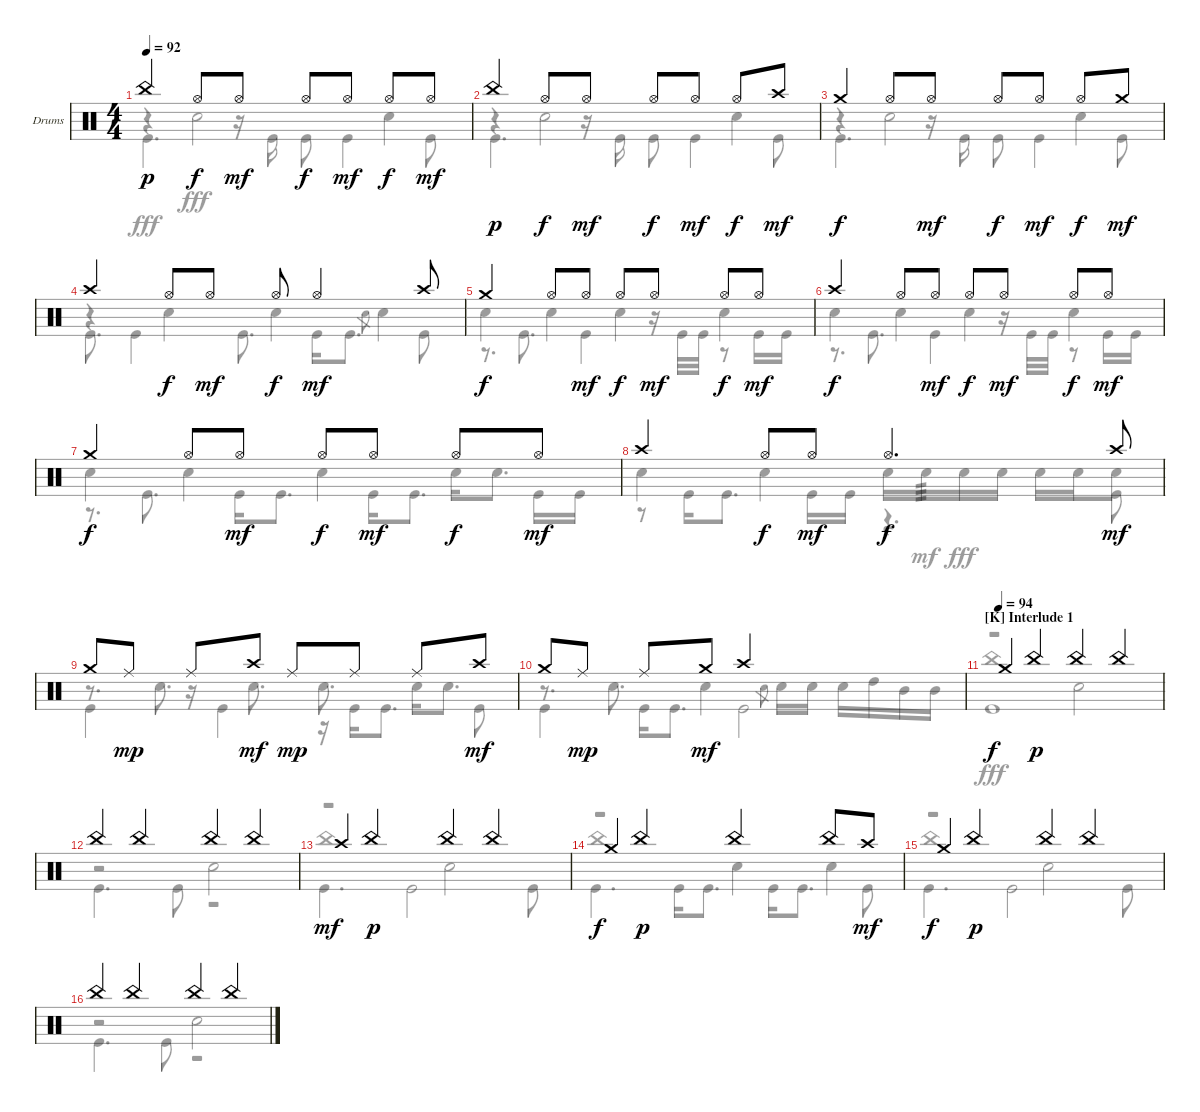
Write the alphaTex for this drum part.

\defaultSystemsLayout 4
\bracketExtendMode groupsimilarinstruments
\firstSystemTrackNameOrientation horizontal
\otherSystemsTrackNameOrientation horizontal
\track ("Drumkit" "Drums") {instrument percussion}
\staff {score}
\articulation defaults
\voice
\ts (4 4)
\tempo 92
\clef neutral
\ks c "China (hit)".4{dy p} "Hi-Hat (open)".8{dy f} "Hi-Hat (open)".8{dy mf} "Hi-Hat (open)".8{dy f} "Hi-Hat (open)".8{dy mf} "Hi-Hat (open)".8{dy f} "Hi-Hat (open)".8{dy mf}
|
"China (hit)".4{dy p} "Hi-Hat (open)".8{dy f} "Hi-Hat (open)".8{dy mf} "Hi-Hat (open)".8{dy f} "Hi-Hat (open)".8{dy mf} "Hi-Hat (open)".8{dy f} "Crash high (hit)".8{dy mf} |
"Crash medium (hit)".4{dy f} "Hi-Hat (open)".8 "Hi-Hat (open)".8{dy mf} "Hi-Hat (open)".8{dy f} "Hi-Hat (open)".8{dy mf} "Hi-Hat (open)".8{dy f} "Crash medium (hit)".8{dy mf} |
"Crash high (hit)".4 "Hi-Hat (open)".8{dy f} "Hi-Hat (open)".8{dy mf} "Hi-Hat (open)".8{dy f} "Hi-Hat (open)".4{dy mf} "Crash high (hit)".8 |
"Crash medium (hit)".4{dy f} "Hi-Hat (open)".8 "Hi-Hat (open)".8{dy mf} "Hi-Hat (open)".8{dy f} "Hi-Hat (open)".8{dy mf} "Hi-Hat (open)".8{dy f} "Hi-Hat (open)".8{dy mf} |
"Crash high (hit)".4{dy f} "Hi-Hat (open)".8 "Hi-Hat (open)".8{dy mf} "Hi-Hat (open)".8{dy f} "Hi-Hat (open)".8{dy mf} "Hi-Hat (open)".8{dy f} "Hi-Hat (open)".8{dy mf} |
"Crash medium (hit)".4{dy f} "Hi-Hat (open)".8 "Hi-Hat (open)".8{dy mf} "Hi-Hat (open)".8{dy f} "Hi-Hat (open)".8{dy mf} "Hi-Hat (open)".8{dy f} "Hi-Hat (open)".8{dy mf} |
"Crash high (hit)".4 "Hi-Hat (open)".8{dy f} "Hi-Hat (open)".8{dy mf} "Hi-Hat (open)".4{d dy f} "Crash high (hit)".8{dy mf} |
"Crash medium (hit)".8 "Ride (middle)".8{dy mp} "Ride (middle)".8 "Crash high (hit)".8{dy mf} "Ride (middle)".8{dy mp} "Ride (middle)".8 "Ride (middle)".8 "Crash high (hit)".8{dy mf} |
"Crash medium (hit)".8 "Ride (middle)".8{dy mp} "Ride (middle)".8 "Crash medium (hit)".8{dy mf} "Crash high (hit)".2 |
\section ("K" "Interlude 1")
\tempo (94)
"Crash medium (hit)".4{dy f} "China (hit)".4{dy p} "China (hit)".4 "China (hit)".4 |
"China (hit)".4 "China (hit)".4 "China (hit)".4 "China (hit)".4 |
"Crash high (hit)".4{dy mf} "China (hit)".4{dy p} "China (hit)".4 "China (hit)".4 |
"Crash medium (hit)".4{dy f} "China (hit)".4{dy p} "China (hit)".4 "China (hit)".8 "Crash high (hit)".8{dy mf} |
"Crash medium (hit)".4{dy f} "China (hit)".4{dy p} "China (hit)".4 "China (hit)".4 |
"China (hit)".4 "China (hit)".4 "China (hit)".4 "China (hit)".4
\voice
\clef neutral
\ottava regular
\simile none
\ks c
r.4{dy fff} "Snare (hit) 2".2 "Snare (hit) 2".4 |
r.4 "Snare (hit) 2".2 "Snare (hit) 2".4 |
r.4 "Snare (hit) 2".2 "Snare (hit) 2".4 |
r.4 "Snare (hit) 2".4 "Snare (hit) 2".4 "Snare (hit) 2".8{gr} "Snare (hit) 2".4 |
"Snare (hit) 2".4 "Snare (hit) 2".4 "Snare (hit) 2".4 "Snare (hit) 2".4 |
"Snare (hit) 2".4 "Snare (hit) 2".4 "Snare (hit) 2".4 "Snare (hit) 2".4 |
"Snare (hit) 2".4 "Snare (hit) 2".4 "Snare (hit) 2".4 "Snare (hit) 2".16 "Snare (hit) 2".8{d} |
"Snare (hit) 2".4 "Snare (hit) 2".4 "Snare (hit) 2".16 "Snare (hit) 2".16{tp 3 dy mf} "Snare (hit) 2".16{dy fff} "Snare (hit) 2".16 "Snare (hit) 2".16 "Snare (hit) 2".16 "Snare (hit) 2".8 |
r.8{d} "Snare (hit) 2".8{d} "Snare (hit) 2".8{d} "Snare (hit) 2".8{d} "Snare (hit) 2".16 "Snare (hit) 2".8{d} |
r.8{d} "Snare (hit) 2".8{d} "Snare (hit) 2".4 "Snare (hit) 2".8{gr} "Snare (hit) 2".16 "Snare (hit) 2".16 "Snare (hit) 2".16 "High Tom (hit)".16 "Mid Tom (hit)".16 "Mid Tom (hit)".16 |
r.2 "Snare (hit) 2".2 |
r.2 "Snare (hit) 2".2 |
r.2 "Snare (hit) 2".2 |
r.2 "Snare (hit) 2".4 "Snare (hit) 2".4 |
r.2 "Snare (hit) 2".2 |
r.2 "Snare (hit) 2".2
\voice
\clef neutral
\ottava regular
\simile none
\ks c "Kick (hit)".4{d dy fff}
r.16 "Kick (hit)".16 "Kick (hit)".8 "Kick (hit)".4 "Kick (hit)".8 |
"Kick (hit)".4{d} r.16 "Kick (hit)".16 "Kick (hit)".8 "Kick (hit)".4 "Kick (hit)".8 |
"Kick (hit)".4{d} r.16 "Kick (hit)".16 "Kick (hit)".8 "Kick (hit)".4 "Kick (hit)".8 |
"Kick (hit)".8{d} "Kick (hit)".4 "Kick (hit)".8{d} "Kick (hit)".16 "Kick (hit)".8{d} "Kick (hit)".8 |
r.8{d} "Kick (hit)".8{d} "Kick (hit)".4 r.16 "Kick (hit)".32 "Kick (hit)".32 r.8 "Kick (hit)".16 "Kick (hit)".16 |
r.8{d} "Kick (hit)".8{d} "Kick (hit)".4 r.16 "Kick (hit)".32 "Kick (hit)".32 r.8 "Kick (hit)".16 "Kick (hit)".16 |
r.8{d} "Kick (hit)".8{d} "Kick (hit)".16 "Kick (hit)".8{d} "Kick (hit)".16 "Kick (hit)".8{d} "Kick (hit)".16 "Kick (hit)".16 |
r.8 "Kick (hit)".16 "Kick (hit)".8{d} "Kick (hit)".16 "Kick (hit)".16 r.4{d} "Kick (hit)".8 |
"Kick (hit)".4 r.16 "Kick (hit)".4 r.16 "Kick (hit)".16 "Kick (hit)".8{d} "Kick (hit)".8 |
"Kick (hit)".4 "Kick (hit)".16 "Kick (hit)".8{d} "Kick (hit)".2 |
"Kick (hit)".1 |
"Kick (hit)".4{d} "Kick (hit)".8 r.2 |
"Kick (hit)".4{d} "Kick (hit)".2 "Kick (hit)".8 |
"Kick (hit)".4{d} "Kick (hit)".16 "Kick (hit)".8{d} "Kick (hit)".16 "Kick (hit)".8{d} "Kick (hit)".8 |
"Kick (hit)".4{d} "Kick (hit)".2 "Kick (hit)".8 |
"Kick (hit)".4{d} "Kick (hit)".8 r.2
\voice
\clef neutral
\ottava regular
\simile none
\ks c
|
|
|
|
|
|
|
|
|
|
"China (hit)".1 |
|
"China (hit)".1 |
"China (hit)".1 |
"China (hit)".1 |
